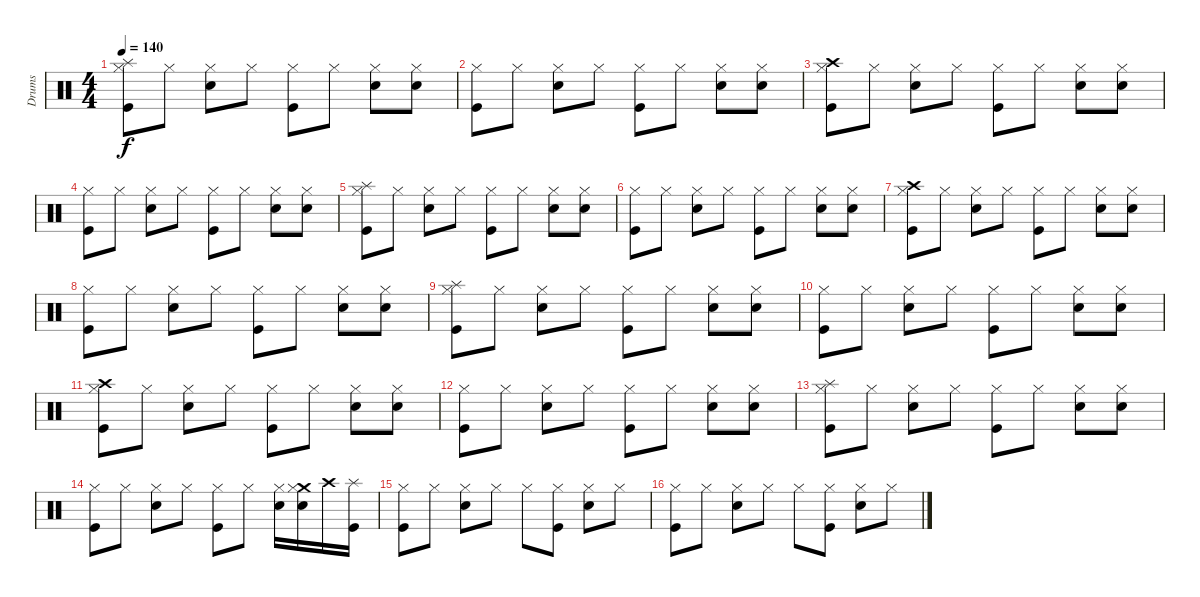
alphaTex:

\track ("Drums" "Drums") {instrument percussion}
\staff {score}
\articulation defaults
\ts (4 4)
\tempo 140
\clef neutral
\ks c
("Splash (hit)" "Hi-Hat (closed)" "Kick (hit)").8{dy f} "Hi-Hat (closed)".8 ("Hi-Hat (closed)" "Electric Snare (hit)").8 "Hi-Hat (closed)".8 ("Hi-Hat (closed)" "Kick (hit)").8 "Hi-Hat (closed)".8 ("Hi-Hat (closed)" "Electric Snare (hit)").8 ("Hi-Hat (closed)" "Electric Snare (hit)").8 |
("Hi-Hat (closed)" "Kick (hit)").8 "Hi-Hat (closed)".8 ("Hi-Hat (closed)" "Electric Snare (hit)").8 "Hi-Hat (closed)".8 ("Hi-Hat (closed)" "Kick (hit)").8 "Hi-Hat (closed)".8 ("Hi-Hat (closed)" "Electric Snare (hit)").8 ("Hi-Hat (closed)" "Electric Snare (hit)").8 |
("Crash high (hit)" "Hi-Hat (closed)" "Kick (hit)").8 "Hi-Hat (closed)".8 ("Hi-Hat (closed)" "Electric Snare (hit)").8 "Hi-Hat (closed)".8 ("Hi-Hat (closed)" "Kick (hit)").8 "Hi-Hat (closed)".8 ("Hi-Hat (closed)" "Electric Snare (hit)").8 ("Hi-Hat (closed)" "Electric Snare (hit)").8 |
("Hi-Hat (closed)" "Kick (hit)").8 "Hi-Hat (closed)".8 ("Hi-Hat (closed)" "Electric Snare (hit)").8 "Hi-Hat (closed)".8 ("Hi-Hat (closed)" "Kick (hit)").8 "Hi-Hat (closed)".8 ("Hi-Hat (closed)" "Electric Snare (hit)").8 ("Hi-Hat (closed)" "Electric Snare (hit)").8 |
("Splash (hit)" "Hi-Hat (closed)" "Kick (hit)").8 "Hi-Hat (closed)".8 ("Hi-Hat (closed)" "Electric Snare (hit)").8 "Hi-Hat (closed)".8 ("Hi-Hat (closed)" "Kick (hit)").8 "Hi-Hat (closed)".8 ("Hi-Hat (closed)" "Electric Snare (hit)").8 ("Hi-Hat (closed)" "Electric Snare (hit)").8 |
("Hi-Hat (closed)" "Kick (hit)").8 "Hi-Hat (closed)".8 ("Hi-Hat (closed)" "Electric Snare (hit)").8 "Hi-Hat (closed)".8 ("Hi-Hat (closed)" "Kick (hit)").8 "Hi-Hat (closed)".8 ("Hi-Hat (closed)" "Electric Snare (hit)").8 ("Hi-Hat (closed)" "Electric Snare (hit)").8 |
("Crash high (hit)" "Hi-Hat (closed)" "Kick (hit)").8 "Hi-Hat (closed)".8 ("Hi-Hat (closed)" "Electric Snare (hit)").8 "Hi-Hat (closed)".8 ("Hi-Hat (closed)" "Kick (hit)").8 "Hi-Hat (closed)".8 ("Hi-Hat (closed)" "Electric Snare (hit)").8 ("Hi-Hat (closed)" "Electric Snare (hit)").8 |
("Hi-Hat (closed)" "Kick (hit)").8 "Hi-Hat (closed)".8 ("Hi-Hat (closed)" "Electric Snare (hit)").8 "Hi-Hat (closed)".8 ("Hi-Hat (closed)" "Kick (hit)").8 "Hi-Hat (closed)".8 ("Hi-Hat (closed)" "Electric Snare (hit)").8 ("Hi-Hat (closed)" "Electric Snare (hit)").8 |
("Splash (hit)" "Hi-Hat (closed)" "Kick (hit)").8 "Hi-Hat (closed)".8 ("Hi-Hat (closed)" "Electric Snare (hit)").8 "Hi-Hat (closed)".8 ("Hi-Hat (closed)" "Kick (hit)").8 "Hi-Hat (closed)".8 ("Hi-Hat (closed)" "Electric Snare (hit)").8 ("Hi-Hat (closed)" "Electric Snare (hit)").8 |
("Hi-Hat (closed)" "Kick (hit)").8 "Hi-Hat (closed)".8 ("Hi-Hat (closed)" "Electric Snare (hit)").8 "Hi-Hat (closed)".8 ("Hi-Hat (closed)" "Kick (hit)").8 "Hi-Hat (closed)".8 ("Hi-Hat (closed)" "Electric Snare (hit)").8 ("Hi-Hat (closed)" "Electric Snare (hit)").8 |
("Crash high (hit)" "Hi-Hat (closed)" "Kick (hit)").8 "Hi-Hat (closed)".8 ("Hi-Hat (closed)" "Electric Snare (hit)").8 "Hi-Hat (closed)".8 ("Hi-Hat (closed)" "Kick (hit)").8 "Hi-Hat (closed)".8 ("Hi-Hat (closed)" "Electric Snare (hit)").8 ("Hi-Hat (closed)" "Electric Snare (hit)").8 |
("Hi-Hat (closed)" "Kick (hit)").8 "Hi-Hat (closed)".8 ("Hi-Hat (closed)" "Electric Snare (hit)").8 "Hi-Hat (closed)".8 ("Hi-Hat (closed)" "Kick (hit)").8 "Hi-Hat (closed)".8 ("Hi-Hat (closed)" "Electric Snare (hit)").8 ("Hi-Hat (closed)" "Electric Snare (hit)").8 |
("Splash (hit)" "Hi-Hat (closed)" "Kick (hit)").8 "Hi-Hat (closed)".8 ("Hi-Hat (closed)" "Electric Snare (hit)").8 "Hi-Hat (closed)".8 ("Hi-Hat (closed)" "Kick (hit)").8 "Hi-Hat (closed)".8 ("Hi-Hat (closed)" "Electric Snare (hit)").8 ("Hi-Hat (closed)" "Electric Snare (hit)").8 |
("Hi-Hat (closed)" "Kick (hit)").8 "Hi-Hat (closed)".8 ("Hi-Hat (closed)" "Electric Snare (hit)").8 "Hi-Hat (closed)".8 ("Hi-Hat (closed)" "Kick (hit)").8 "Hi-Hat (closed)".8 ("Hi-Hat (closed)" "Electric Snare (hit)").16 ("Crash medium (hit)" "Hi-Hat (closed)" "Electric Snare (hit)").16 "Crash high (hit)".16 ("Splash (hit)" "Kick (hit)").16 |
("Hi-Hat (closed)" "Kick (hit)").8 "Hi-Hat (closed)".8 ("Hi-Hat (closed)" "Electric Snare (hit)").8 "Hi-Hat (closed)".8 "Hi-Hat (closed)".8 ("Hi-Hat (closed)" "Kick (hit)").8 ("Hi-Hat (closed)" "Electric Snare (hit)").8 "Hi-Hat (closed)".8 |
("Hi-Hat (closed)" "Kick (hit)").8 "Hi-Hat (closed)".8 ("Hi-Hat (closed)" "Electric Snare (hit)").8 "Hi-Hat (closed)".8 "Hi-Hat (closed)".8 ("Hi-Hat (closed)" "Kick (hit)").8 ("Hi-Hat (closed)" "Electric Snare (hit)").8 "Hi-Hat (closed)".8
